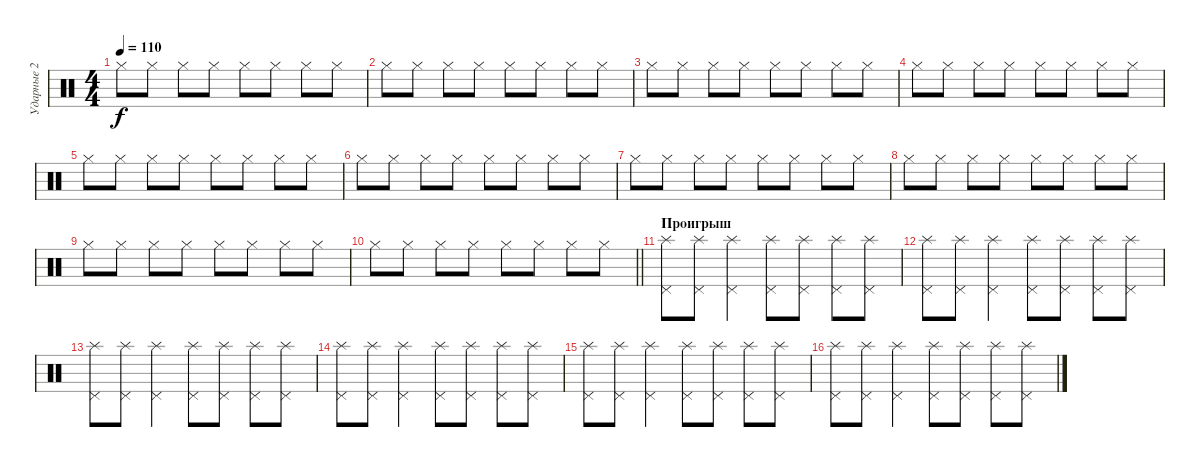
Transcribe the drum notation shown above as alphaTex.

\track ("Ударные 2" "Ударные 2") {instrument percussion}
\staff {score}
\articulation defaults
\ts (4 4)
\tempo 110
\clef neutral
\ks c "Hi-Hat (closed)".8{dy f} "Hi-Hat (closed)".8 "Hi-Hat (closed)".8 "Hi-Hat (closed)".8 "Hi-Hat (closed)".8 "Hi-Hat (closed)".8 "Hi-Hat (closed)".8 "Hi-Hat (closed)".8
|
"Hi-Hat (closed)".8 "Hi-Hat (closed)".8 "Hi-Hat (closed)".8 "Hi-Hat (closed)".8 "Hi-Hat (closed)".8 "Hi-Hat (closed)".8 "Hi-Hat (closed)".8 "Hi-Hat (closed)".8 |
"Hi-Hat (closed)".8 "Hi-Hat (closed)".8 "Hi-Hat (closed)".8 "Hi-Hat (closed)".8 "Hi-Hat (closed)".8 "Hi-Hat (closed)".8 "Hi-Hat (closed)".8 "Hi-Hat (closed)".8 |
"Hi-Hat (closed)".8 "Hi-Hat (closed)".8 "Hi-Hat (closed)".8 "Hi-Hat (closed)".8 "Hi-Hat (closed)".8 "Hi-Hat (closed)".8 "Hi-Hat (closed)".8 "Hi-Hat (closed)".8 |
"Hi-Hat (closed)".8 "Hi-Hat (closed)".8 "Hi-Hat (closed)".8 "Hi-Hat (closed)".8 "Hi-Hat (closed)".8 "Hi-Hat (closed)".8 "Hi-Hat (closed)".8 "Hi-Hat (closed)".8 |
"Hi-Hat (closed)".8 "Hi-Hat (closed)".8 "Hi-Hat (closed)".8 "Hi-Hat (closed)".8 "Hi-Hat (closed)".8 "Hi-Hat (closed)".8 "Hi-Hat (closed)".8 "Hi-Hat (closed)".8 |
"Hi-Hat (closed)".8 "Hi-Hat (closed)".8 "Hi-Hat (closed)".8 "Hi-Hat (closed)".8 "Hi-Hat (closed)".8 "Hi-Hat (closed)".8 "Hi-Hat (closed)".8 "Hi-Hat (closed)".8 |
"Hi-Hat (closed)".8 "Hi-Hat (closed)".8 "Hi-Hat (closed)".8 "Hi-Hat (closed)".8 "Hi-Hat (closed)".8 "Hi-Hat (closed)".8 "Hi-Hat (closed)".8 "Hi-Hat (closed)".8 |
"Hi-Hat (closed)".8 "Hi-Hat (closed)".8 "Hi-Hat (closed)".8 "Hi-Hat (closed)".8 "Hi-Hat (closed)".8 "Hi-Hat (closed)".8 "Hi-Hat (closed)".8 "Hi-Hat (closed)".8 |
\barLineRight lightlight "Hi-Hat (closed)".8 "Hi-Hat (closed)".8 "Hi-Hat (closed)".8 "Hi-Hat (closed)".8 "Hi-Hat (closed)".8 "Hi-Hat (closed)".8 "Hi-Hat (closed)".8 "Hi-Hat (closed)".8
|
\section ("" "Проигрыш")
("Pedal Hi-Hat (hit)" "Splash (hit)").8 ("Pedal Hi-Hat (hit)" "Splash (hit)").8 ("Pedal Hi-Hat (hit)" "Splash (hit)").4 ("Pedal Hi-Hat (hit)" "Splash (hit)").8 ("Pedal Hi-Hat (hit)" "Splash (hit)").8 ("Pedal Hi-Hat (hit)" "Splash (hit)").8 ("Pedal Hi-Hat (hit)" "Splash (hit)").8 |
("Pedal Hi-Hat (hit)" "Splash (hit)").8 ("Pedal Hi-Hat (hit)" "Splash (hit)").8 ("Pedal Hi-Hat (hit)" "Splash (hit)").4 ("Pedal Hi-Hat (hit)" "Splash (hit)").8 ("Pedal Hi-Hat (hit)" "Splash (hit)").8 ("Pedal Hi-Hat (hit)" "Splash (hit)").8 ("Pedal Hi-Hat (hit)" "Splash (hit)").8 |
("Pedal Hi-Hat (hit)" "Splash (hit)").8 ("Pedal Hi-Hat (hit)" "Splash (hit)").8 ("Pedal Hi-Hat (hit)" "Splash (hit)").4 ("Pedal Hi-Hat (hit)" "Splash (hit)").8 ("Pedal Hi-Hat (hit)" "Splash (hit)").8 ("Pedal Hi-Hat (hit)" "Splash (hit)").8 ("Pedal Hi-Hat (hit)" "Splash (hit)").8 |
("Pedal Hi-Hat (hit)" "Splash (hit)").8 ("Pedal Hi-Hat (hit)" "Splash (hit)").8 ("Pedal Hi-Hat (hit)" "Splash (hit)").4 ("Pedal Hi-Hat (hit)" "Splash (hit)").8 ("Pedal Hi-Hat (hit)" "Splash (hit)").8 ("Pedal Hi-Hat (hit)" "Splash (hit)").8 ("Pedal Hi-Hat (hit)" "Splash (hit)").8 |
("Pedal Hi-Hat (hit)" "Splash (hit)").8 ("Pedal Hi-Hat (hit)" "Splash (hit)").8 ("Pedal Hi-Hat (hit)" "Splash (hit)").4 ("Pedal Hi-Hat (hit)" "Splash (hit)").8 ("Pedal Hi-Hat (hit)" "Splash (hit)").8 ("Pedal Hi-Hat (hit)" "Splash (hit)").8 ("Pedal Hi-Hat (hit)" "Splash (hit)").8 |
("Pedal Hi-Hat (hit)" "Splash (hit)").8 ("Pedal Hi-Hat (hit)" "Splash (hit)").8 ("Pedal Hi-Hat (hit)" "Splash (hit)").4 ("Pedal Hi-Hat (hit)" "Splash (hit)").8 ("Pedal Hi-Hat (hit)" "Splash (hit)").8 ("Pedal Hi-Hat (hit)" "Splash (hit)").8 ("Pedal Hi-Hat (hit)" "Splash (hit)").8
